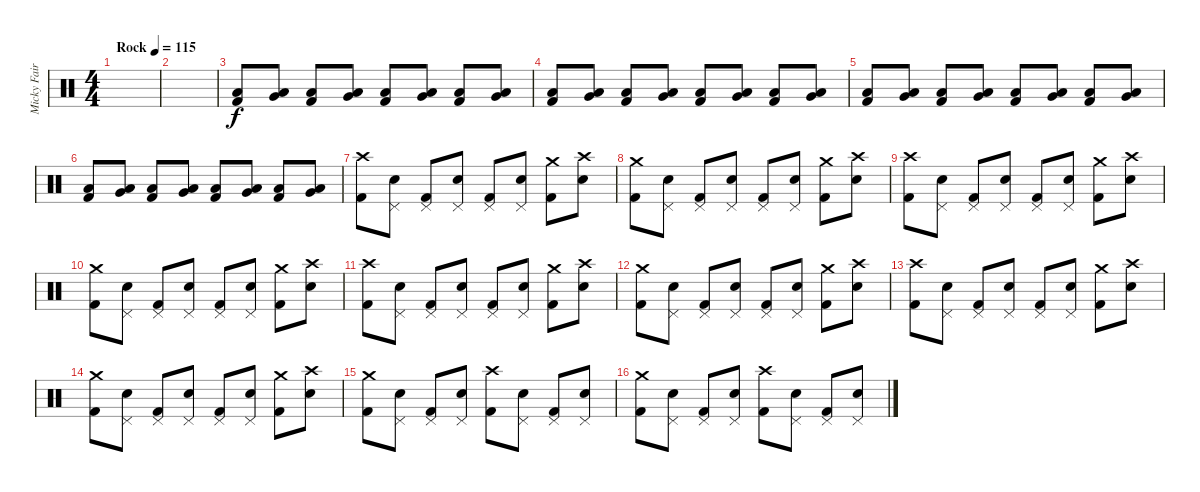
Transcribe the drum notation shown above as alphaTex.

\track ("Micky Fairbairn - Drums" "Micky Fair") {instrument percussion}
\staff {score}
\articulation defaults
\ts (4 4)
\tempo (115 "Rock")
\clef neutral
\ks c
|
|
("Low Floor Tom (hit)" "Kick (hit) 2").8 ("Very Low Tom (hit)" "Low Floor Tom (hit)").8 ("Low Floor Tom (hit)" "Kick (hit) 2").8 ("Very Low Tom (hit)" "Low Floor Tom (hit)").8 ("Low Floor Tom (hit)" "Kick (hit) 2").8 ("Very Low Tom (hit)" "Low Floor Tom (hit)").8 ("Low Floor Tom (hit)" "Kick (hit) 2").8 ("Very Low Tom (hit)" "Low Floor Tom (hit)").8 |
("Low Floor Tom (hit)" "Kick (hit) 2").8 ("Very Low Tom (hit)" "Low Floor Tom (hit)").8 ("Low Floor Tom (hit)" "Kick (hit) 2").8 ("Very Low Tom (hit)" "Low Floor Tom (hit)").8 ("Low Floor Tom (hit)" "Kick (hit) 2").8 ("Very Low Tom (hit)" "Low Floor Tom (hit)").8 ("Low Floor Tom (hit)" "Kick (hit) 2").8 ("Very Low Tom (hit)" "Low Floor Tom (hit)").8 |
("Low Floor Tom (hit)" "Kick (hit) 2").8 ("Very Low Tom (hit)" "Low Floor Tom (hit)").8 ("Low Floor Tom (hit)" "Kick (hit) 2").8 ("Very Low Tom (hit)" "Low Floor Tom (hit)").8 ("Low Floor Tom (hit)" "Kick (hit) 2").8 ("Very Low Tom (hit)" "Low Floor Tom (hit)").8 ("Low Floor Tom (hit)" "Kick (hit) 2").8 ("Very Low Tom (hit)" "Low Floor Tom (hit)").8 |
("Low Floor Tom (hit)" "Kick (hit) 2").8 ("Very Low Tom (hit)" "Low Floor Tom (hit)").8 ("Low Floor Tom (hit)" "Kick (hit) 2").8 ("Very Low Tom (hit)" "Low Floor Tom (hit)").8 ("Low Floor Tom (hit)" "Kick (hit) 2").8 ("Very Low Tom (hit)" "Low Floor Tom (hit)").8 ("Low Floor Tom (hit)" "Kick (hit) 2").8 ("Very Low Tom (hit)" "Low Floor Tom (hit)").8 |
("Crash high (hit)" "Kick (hit) 2").8 ("Pedal Hi-Hat (hit)" "Snare (hit) 2").8 ("Pedal Hi-Hat (hit)" "Kick (hit) 2").8 ("Pedal Hi-Hat (hit)" "Snare (hit) 2").8 ("Pedal Hi-Hat (hit)" "Kick (hit) 2").8 ("Pedal Hi-Hat (hit)" "Snare (hit) 2").8 ("Crash medium (hit)" "Kick (hit) 2").8 ("Crash high (hit)" "Snare (hit) 2").8 |
("Crash medium (hit)" "Kick (hit) 2").8 ("Pedal Hi-Hat (hit)" "Snare (hit) 2").8 ("Pedal Hi-Hat (hit)" "Kick (hit) 2").8 ("Pedal Hi-Hat (hit)" "Snare (hit) 2").8 ("Pedal Hi-Hat (hit)" "Kick (hit) 2").8 ("Pedal Hi-Hat (hit)" "Snare (hit) 2").8 ("Crash medium (hit)" "Kick (hit) 2").8 ("Crash high (hit)" "Snare (hit) 2").8 |
("Crash high (hit)" "Kick (hit) 2").8 ("Pedal Hi-Hat (hit)" "Snare (hit) 2").8 ("Pedal Hi-Hat (hit)" "Kick (hit) 2").8 ("Pedal Hi-Hat (hit)" "Snare (hit) 2").8 ("Pedal Hi-Hat (hit)" "Kick (hit) 2").8 ("Pedal Hi-Hat (hit)" "Snare (hit) 2").8 ("Crash medium (hit)" "Kick (hit) 2").8 ("Crash high (hit)" "Snare (hit) 2").8 |
("Crash medium (hit)" "Kick (hit) 2").8 ("Pedal Hi-Hat (hit)" "Snare (hit) 2").8 ("Pedal Hi-Hat (hit)" "Kick (hit) 2").8 ("Pedal Hi-Hat (hit)" "Snare (hit) 2").8 ("Pedal Hi-Hat (hit)" "Kick (hit) 2").8 ("Pedal Hi-Hat (hit)" "Snare (hit) 2").8 ("Crash medium (hit)" "Kick (hit) 2").8 ("Crash high (hit)" "Snare (hit) 2").8 |
("Crash high (hit)" "Kick (hit) 2").8 ("Pedal Hi-Hat (hit)" "Snare (hit) 2").8 ("Pedal Hi-Hat (hit)" "Kick (hit) 2").8 ("Pedal Hi-Hat (hit)" "Snare (hit) 2").8 ("Pedal Hi-Hat (hit)" "Kick (hit) 2").8 ("Pedal Hi-Hat (hit)" "Snare (hit) 2").8 ("Crash medium (hit)" "Kick (hit) 2").8 ("Crash high (hit)" "Snare (hit) 2").8 |
("Crash medium (hit)" "Kick (hit) 2").8 ("Pedal Hi-Hat (hit)" "Snare (hit) 2").8 ("Pedal Hi-Hat (hit)" "Kick (hit) 2").8 ("Pedal Hi-Hat (hit)" "Snare (hit) 2").8 ("Pedal Hi-Hat (hit)" "Kick (hit) 2").8 ("Pedal Hi-Hat (hit)" "Snare (hit) 2").8 ("Crash medium (hit)" "Kick (hit) 2").8 ("Crash high (hit)" "Snare (hit) 2").8 |
("Crash high (hit)" "Kick (hit) 2").8 ("Pedal Hi-Hat (hit)" "Snare (hit) 2").8 ("Pedal Hi-Hat (hit)" "Kick (hit) 2").8 ("Pedal Hi-Hat (hit)" "Snare (hit) 2").8 ("Pedal Hi-Hat (hit)" "Kick (hit) 2").8 ("Pedal Hi-Hat (hit)" "Snare (hit) 2").8 ("Crash medium (hit)" "Kick (hit) 2").8 ("Crash high (hit)" "Snare (hit) 2").8 |
("Crash medium (hit)" "Kick (hit) 2").8 ("Pedal Hi-Hat (hit)" "Snare (hit) 2").8 ("Pedal Hi-Hat (hit)" "Kick (hit) 2").8 ("Pedal Hi-Hat (hit)" "Snare (hit) 2").8 ("Pedal Hi-Hat (hit)" "Kick (hit) 2").8 ("Pedal Hi-Hat (hit)" "Snare (hit) 2").8 ("Crash medium (hit)" "Kick (hit) 2").8 ("Crash high (hit)" "Snare (hit) 2").8 |
("Crash medium (hit)" "Kick (hit) 2").8 ("Pedal Hi-Hat (hit)" "Snare (hit) 2").8 ("Pedal Hi-Hat (hit)" "Kick (hit) 2").8 ("Pedal Hi-Hat (hit)" "Snare (hit) 2").8 ("Crash high (hit)" "Kick (hit) 2").8 ("Pedal Hi-Hat (hit)" "Snare (hit) 2").8 ("Pedal Hi-Hat (hit)" "Kick (hit) 2").8 ("Pedal Hi-Hat (hit)" "Snare (hit) 2").8 |
("Crash medium (hit)" "Kick (hit) 2").8 ("Pedal Hi-Hat (hit)" "Snare (hit) 2").8 ("Pedal Hi-Hat (hit)" "Kick (hit) 2").8 ("Pedal Hi-Hat (hit)" "Snare (hit) 2").8 ("Crash high (hit)" "Kick (hit) 2").8 ("Pedal Hi-Hat (hit)" "Snare (hit) 2").8 ("Pedal Hi-Hat (hit)" "Kick (hit) 2").8 ("Pedal Hi-Hat (hit)" "Snare (hit) 2").8
